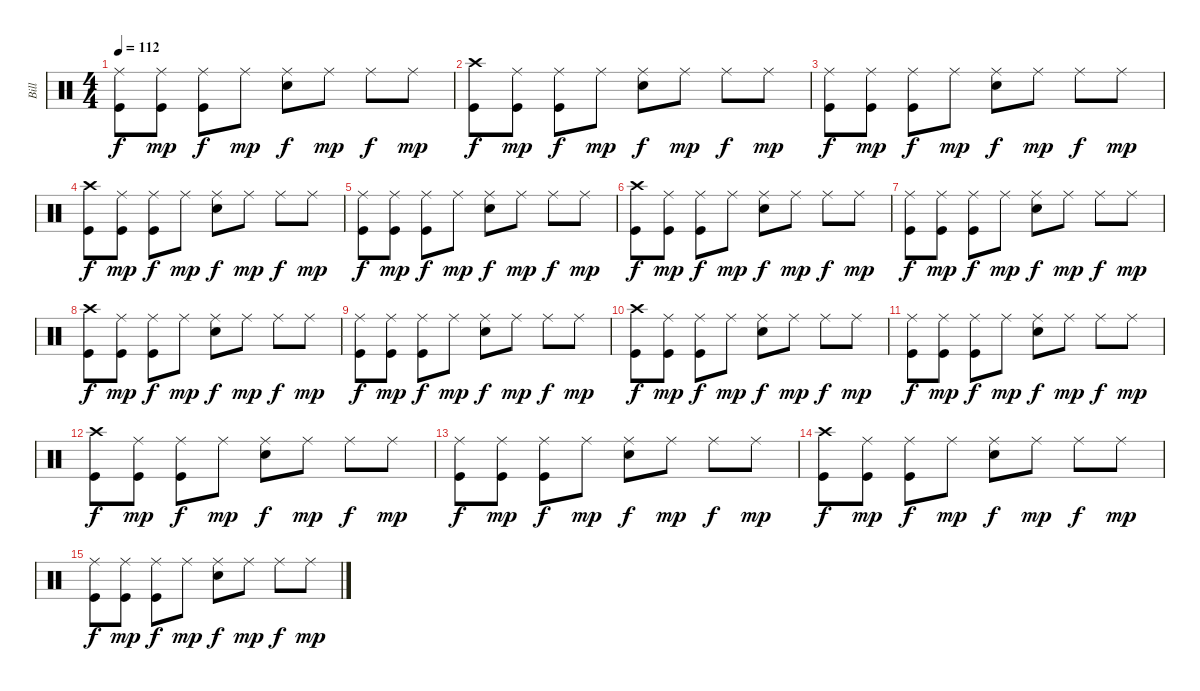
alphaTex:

\track ("Bill" "Bill") {instrument percussion}
\staff {score}
\articulation defaults
\ts (4 4)
\tempo 112
\clef neutral
\ks c
("Ride (middle)" "Kick (hit)").8{dy f} ("Ride (middle)" "Kick (hit)").8{dy mp} ("Ride (middle)" "Kick (hit)").8{dy f} "Ride (middle)".8{dy mp} ("Ride (middle)" "Snare (hit) 2").8{dy f} "Ride (middle)".8{dy mp} "Ride (middle)".8{dy f} "Ride (middle)".8{dy mp} |
("Crash high (hit)" "Kick (hit)").8{dy f} ("Ride (middle)" "Kick (hit)").8{dy mp} ("Ride (middle)" "Kick (hit)").8{dy f} "Ride (middle)".8{dy mp} ("Ride (middle)" "Snare (hit) 2").8{dy f} "Ride (middle)".8{dy mp} "Ride (middle)".8{dy f} "Ride (middle)".8{dy mp} |
("Ride (middle)" "Kick (hit)").8{dy f} ("Ride (middle)" "Kick (hit)").8{dy mp} ("Ride (middle)" "Kick (hit)").8{dy f} "Ride (middle)".8{dy mp} ("Ride (middle)" "Snare (hit) 2").8{dy f} "Ride (middle)".8{dy mp} "Ride (middle)".8{dy f} "Ride (middle)".8{dy mp} |
("Crash high (hit)" "Kick (hit)").8{dy f} ("Ride (middle)" "Kick (hit)").8{dy mp} ("Ride (middle)" "Kick (hit)").8{dy f} "Ride (middle)".8{dy mp} ("Ride (middle)" "Snare (hit) 2").8{dy f} "Ride (middle)".8{dy mp} "Ride (middle)".8{dy f} "Ride (middle)".8{dy mp} |
("Ride (middle)" "Kick (hit)").8{dy f} ("Ride (middle)" "Kick (hit)").8{dy mp} ("Ride (middle)" "Kick (hit)").8{dy f} "Ride (middle)".8{dy mp} ("Ride (middle)" "Snare (hit) 2").8{dy f} "Ride (middle)".8{dy mp} "Ride (middle)".8{dy f} "Ride (middle)".8{dy mp} |
("Crash high (hit)" "Kick (hit)").8{dy f} ("Ride (middle)" "Kick (hit)").8{dy mp} ("Ride (middle)" "Kick (hit)").8{dy f} "Ride (middle)".8{dy mp} ("Ride (middle)" "Snare (hit) 2").8{dy f} "Ride (middle)".8{dy mp} "Ride (middle)".8{dy f} "Ride (middle)".8{dy mp} |
("Ride (middle)" "Kick (hit)").8{dy f} ("Ride (middle)" "Kick (hit)").8{dy mp} ("Ride (middle)" "Kick (hit)").8{dy f} "Ride (middle)".8{dy mp} ("Ride (middle)" "Snare (hit) 2").8{dy f} "Ride (middle)".8{dy mp} "Ride (middle)".8{dy f} "Ride (middle)".8{dy mp} |
("Crash high (hit)" "Kick (hit)").8{dy f} ("Ride (middle)" "Kick (hit)").8{dy mp} ("Ride (middle)" "Kick (hit)").8{dy f} "Ride (middle)".8{dy mp} ("Ride (middle)" "Snare (hit) 2").8{dy f} "Ride (middle)".8{dy mp} "Ride (middle)".8{dy f} "Ride (middle)".8{dy mp} |
("Ride (middle)" "Kick (hit)").8{dy f} ("Ride (middle)" "Kick (hit)").8{dy mp} ("Ride (middle)" "Kick (hit)").8{dy f} "Ride (middle)".8{dy mp} ("Ride (middle)" "Snare (hit) 2").8{dy f} "Ride (middle)".8{dy mp} "Ride (middle)".8{dy f} "Ride (middle)".8{dy mp} |
("Crash high (hit)" "Kick (hit)").8{dy f} ("Ride (middle)" "Kick (hit)").8{dy mp} ("Ride (middle)" "Kick (hit)").8{dy f} "Ride (middle)".8{dy mp} ("Ride (middle)" "Snare (hit) 2").8{dy f} "Ride (middle)".8{dy mp} "Ride (middle)".8{dy f} "Ride (middle)".8{dy mp} |
("Ride (middle)" "Kick (hit)").8{dy f} ("Ride (middle)" "Kick (hit)").8{dy mp} ("Ride (middle)" "Kick (hit)").8{dy f} "Ride (middle)".8{dy mp} ("Ride (middle)" "Snare (hit) 2").8{dy f} "Ride (middle)".8{dy mp} "Ride (middle)".8{dy f} "Ride (middle)".8{dy mp} |
("Crash high (hit)" "Kick (hit)").8{dy f} ("Ride (middle)" "Kick (hit)").8{dy mp} ("Ride (middle)" "Kick (hit)").8{dy f} "Ride (middle)".8{dy mp} ("Ride (middle)" "Snare (hit) 2").8{dy f} "Ride (middle)".8{dy mp} "Ride (middle)".8{dy f} "Ride (middle)".8{dy mp} |
("Ride (middle)" "Kick (hit)").8{dy f} ("Ride (middle)" "Kick (hit)").8{dy mp} ("Ride (middle)" "Kick (hit)").8{dy f} "Ride (middle)".8{dy mp} ("Ride (middle)" "Snare (hit) 2").8{dy f} "Ride (middle)".8{dy mp} "Ride (middle)".8{dy f} "Ride (middle)".8{dy mp} |
("Crash high (hit)" "Kick (hit)").8{dy f} ("Ride (middle)" "Kick (hit)").8{dy mp} ("Ride (middle)" "Kick (hit)").8{dy f} "Ride (middle)".8{dy mp} ("Ride (middle)" "Snare (hit) 2").8{dy f} "Ride (middle)".8{dy mp} "Ride (middle)".8{dy f} "Ride (middle)".8{dy mp} |
("Ride (middle)" "Kick (hit)").8{dy f} ("Ride (middle)" "Kick (hit)").8{dy mp} ("Ride (middle)" "Kick (hit)").8{dy f} "Ride (middle)".8{dy mp} ("Ride (middle)" "Snare (hit) 2").8{dy f} "Ride (middle)".8{dy mp} "Ride (middle)".8{dy f} "Ride (middle)".8{dy mp}
